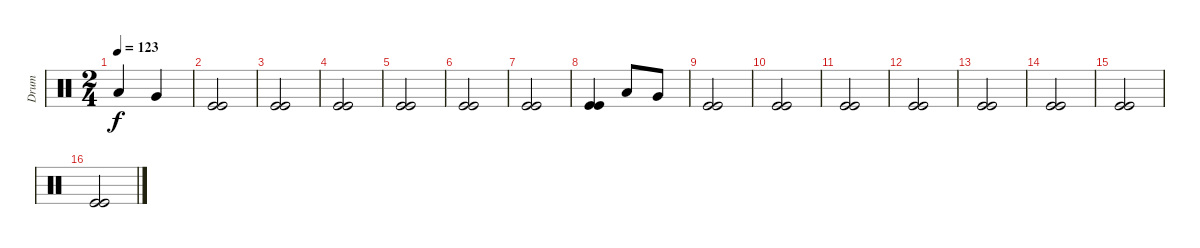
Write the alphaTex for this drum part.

\track ("Drum" "Drum") {instrument percussion}
\staff {score}
\articulation defaults
\ts (2 4)
\tempo 123
\clef neutral
\ks c "Low Tom (hit)".4{dy f} "Very Low Tom (hit)".4
|
("Kick (hit)" "Kick (hit)").2 |
("Kick (hit)" "Kick (hit)").2 |
("Kick (hit)" "Kick (hit)").2 |
("Kick (hit)" "Kick (hit)").2 |
("Kick (hit)" "Kick (hit)").2 |
("Kick (hit)" "Kick (hit)").2 |
("Kick (hit)" "Kick (hit)").4 "Low Tom (hit)".8 "Very Low Tom (hit)".8 |
("Kick (hit)" "Kick (hit)").2 |
("Kick (hit)" "Kick (hit)").2 |
("Kick (hit)" "Kick (hit)").2 |
("Kick (hit)" "Kick (hit)").2 |
("Kick (hit)" "Kick (hit)").2 |
("Kick (hit)" "Kick (hit)").2 |
("Kick (hit)" "Kick (hit)").2 |
("Kick (hit)" "Kick (hit)").2
